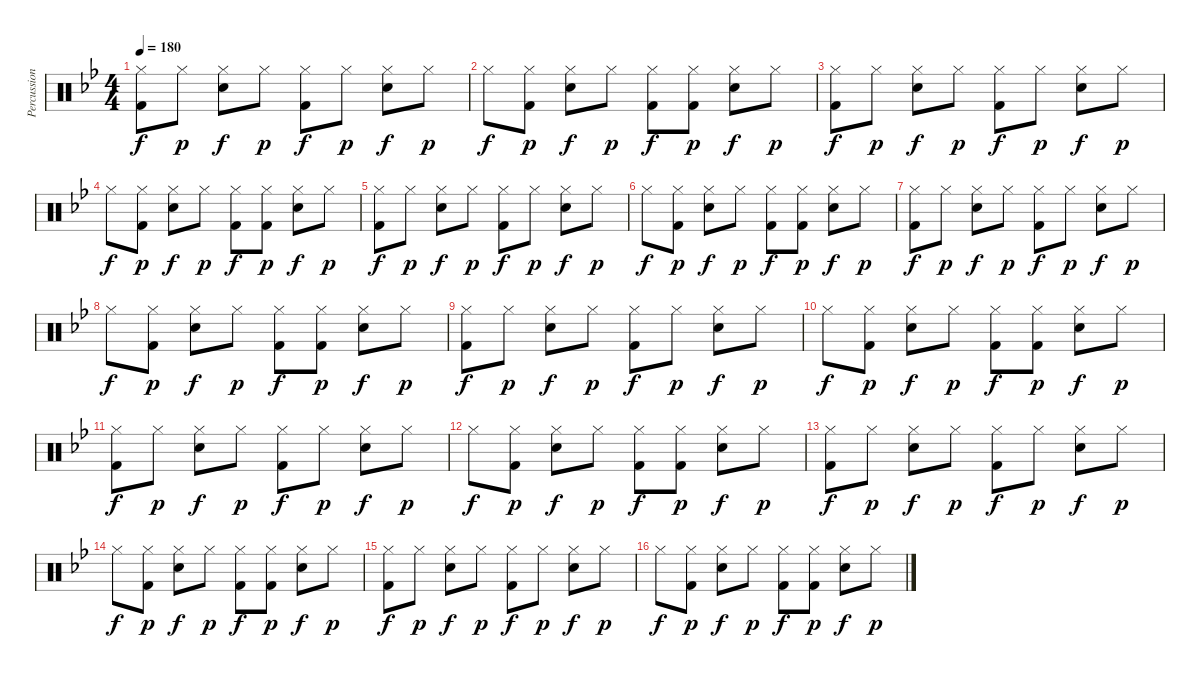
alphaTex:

\track ("Percussion" "Percussion") {instrument percussion}
\staff {score}
\articulation defaults
\ts (4 4)
\tempo 180
\clef neutral
\ks bb
("Hi-Hat (closed)" "Kick (hit) 2").8{dy f} "Hi-Hat (closed)".8{dy p} ("Hi-Hat (closed)" "Snare (hit) 2").8{dy f} "Hi-Hat (closed)".8{dy p} ("Hi-Hat (closed)" "Kick (hit) 2").8{dy f} "Hi-Hat (closed)".8{dy p} ("Hi-Hat (closed)" "Snare (hit) 2").8{dy f} "Hi-Hat (closed)".8{dy p} |
"Hi-Hat (closed)".8{dy f} ("Hi-Hat (closed)" "Kick (hit) 2").8{dy p} ("Hi-Hat (closed)" "Snare (hit) 2").8{dy f} "Hi-Hat (closed)".8{dy p} ("Hi-Hat (closed)" "Kick (hit) 2").8{dy f} ("Hi-Hat (closed)" "Kick (hit) 2").8{dy p} ("Hi-Hat (closed)" "Snare (hit) 2").8{dy f} "Hi-Hat (closed)".8{dy p} |
("Hi-Hat (closed)" "Kick (hit) 2").8{dy f} "Hi-Hat (closed)".8{dy p} ("Hi-Hat (closed)" "Snare (hit) 2").8{dy f} "Hi-Hat (closed)".8{dy p} ("Hi-Hat (closed)" "Kick (hit) 2").8{dy f} "Hi-Hat (closed)".8{dy p} ("Hi-Hat (closed)" "Snare (hit) 2").8{dy f} "Hi-Hat (closed)".8{dy p} |
"Hi-Hat (closed)".8{dy f} ("Hi-Hat (closed)" "Kick (hit) 2").8{dy p} ("Hi-Hat (closed)" "Snare (hit) 2").8{dy f} "Hi-Hat (closed)".8{dy p} ("Hi-Hat (closed)" "Kick (hit) 2").8{dy f} ("Hi-Hat (closed)" "Kick (hit) 2").8{dy p} ("Hi-Hat (closed)" "Snare (hit) 2").8{dy f} "Hi-Hat (closed)".8{dy p} |
("Hi-Hat (closed)" "Kick (hit) 2").8{dy f} "Hi-Hat (closed)".8{dy p} ("Hi-Hat (closed)" "Snare (hit) 2").8{dy f} "Hi-Hat (closed)".8{dy p} ("Hi-Hat (closed)" "Kick (hit) 2").8{dy f} "Hi-Hat (closed)".8{dy p} ("Hi-Hat (closed)" "Snare (hit) 2").8{dy f} "Hi-Hat (closed)".8{dy p} |
"Hi-Hat (closed)".8{dy f} ("Hi-Hat (closed)" "Kick (hit) 2").8{dy p} ("Hi-Hat (closed)" "Snare (hit) 2").8{dy f} "Hi-Hat (closed)".8{dy p} ("Hi-Hat (closed)" "Kick (hit) 2").8{dy f} ("Hi-Hat (closed)" "Kick (hit) 2").8{dy p} ("Hi-Hat (closed)" "Snare (hit) 2").8{dy f} "Hi-Hat (closed)".8{dy p} |
("Hi-Hat (closed)" "Kick (hit) 2").8{dy f} "Hi-Hat (closed)".8{dy p} ("Hi-Hat (closed)" "Snare (hit) 2").8{dy f} "Hi-Hat (closed)".8{dy p} ("Hi-Hat (closed)" "Kick (hit) 2").8{dy f} "Hi-Hat (closed)".8{dy p} ("Hi-Hat (closed)" "Snare (hit) 2").8{dy f} "Hi-Hat (closed)".8{dy p} |
"Hi-Hat (closed)".8{dy f} ("Hi-Hat (closed)" "Kick (hit) 2").8{dy p} ("Hi-Hat (closed)" "Snare (hit) 2").8{dy f} "Hi-Hat (closed)".8{dy p} ("Hi-Hat (closed)" "Kick (hit) 2").8{dy f} ("Hi-Hat (closed)" "Kick (hit) 2").8{dy p} ("Hi-Hat (closed)" "Snare (hit) 2").8{dy f} "Hi-Hat (closed)".8{dy p} |
("Hi-Hat (closed)" "Kick (hit) 2").8{dy f} "Hi-Hat (closed)".8{dy p} ("Hi-Hat (closed)" "Snare (hit) 2").8{dy f} "Hi-Hat (closed)".8{dy p} ("Hi-Hat (closed)" "Kick (hit) 2").8{dy f} "Hi-Hat (closed)".8{dy p} ("Hi-Hat (closed)" "Snare (hit) 2").8{dy f} "Hi-Hat (closed)".8{dy p} |
"Hi-Hat (closed)".8{dy f} ("Hi-Hat (closed)" "Kick (hit) 2").8{dy p} ("Hi-Hat (closed)" "Snare (hit) 2").8{dy f} "Hi-Hat (closed)".8{dy p} ("Hi-Hat (closed)" "Kick (hit) 2").8{dy f} ("Hi-Hat (closed)" "Kick (hit) 2").8{dy p} ("Hi-Hat (closed)" "Snare (hit) 2").8{dy f} "Hi-Hat (closed)".8{dy p} |
("Hi-Hat (closed)" "Kick (hit) 2").8{dy f} "Hi-Hat (closed)".8{dy p} ("Hi-Hat (closed)" "Snare (hit) 2").8{dy f} "Hi-Hat (closed)".8{dy p} ("Hi-Hat (closed)" "Kick (hit) 2").8{dy f} "Hi-Hat (closed)".8{dy p} ("Hi-Hat (closed)" "Snare (hit) 2").8{dy f} "Hi-Hat (closed)".8{dy p} |
"Hi-Hat (closed)".8{dy f} ("Hi-Hat (closed)" "Kick (hit) 2").8{dy p} ("Hi-Hat (closed)" "Snare (hit) 2").8{dy f} "Hi-Hat (closed)".8{dy p} ("Hi-Hat (closed)" "Kick (hit) 2").8{dy f} ("Hi-Hat (closed)" "Kick (hit) 2").8{dy p} ("Hi-Hat (closed)" "Snare (hit) 2").8{dy f} "Hi-Hat (closed)".8{dy p} |
("Hi-Hat (closed)" "Kick (hit) 2").8{dy f} "Hi-Hat (closed)".8{dy p} ("Hi-Hat (closed)" "Snare (hit) 2").8{dy f} "Hi-Hat (closed)".8{dy p} ("Hi-Hat (closed)" "Kick (hit) 2").8{dy f} "Hi-Hat (closed)".8{dy p} ("Hi-Hat (closed)" "Snare (hit) 2").8{dy f} "Hi-Hat (closed)".8{dy p} |
"Hi-Hat (closed)".8{dy f} ("Hi-Hat (closed)" "Kick (hit) 2").8{dy p} ("Hi-Hat (closed)" "Snare (hit) 2").8{dy f} "Hi-Hat (closed)".8{dy p} ("Hi-Hat (closed)" "Kick (hit) 2").8{dy f} ("Hi-Hat (closed)" "Kick (hit) 2").8{dy p} ("Hi-Hat (closed)" "Snare (hit) 2").8{dy f} "Hi-Hat (closed)".8{dy p} |
("Hi-Hat (closed)" "Kick (hit) 2").8{dy f} "Hi-Hat (closed)".8{dy p} ("Hi-Hat (closed)" "Snare (hit) 2").8{dy f} "Hi-Hat (closed)".8{dy p} ("Hi-Hat (closed)" "Kick (hit) 2").8{dy f} "Hi-Hat (closed)".8{dy p} ("Hi-Hat (closed)" "Snare (hit) 2").8{dy f} "Hi-Hat (closed)".8{dy p} |
"Hi-Hat (closed)".8{dy f} ("Hi-Hat (closed)" "Kick (hit) 2").8{dy p} ("Hi-Hat (closed)" "Snare (hit) 2").8{dy f} "Hi-Hat (closed)".8{dy p} ("Hi-Hat (closed)" "Kick (hit) 2").8{dy f} ("Hi-Hat (closed)" "Kick (hit) 2").8{dy p} ("Hi-Hat (closed)" "Snare (hit) 2").8{dy f} "Hi-Hat (closed)".8{dy p}
